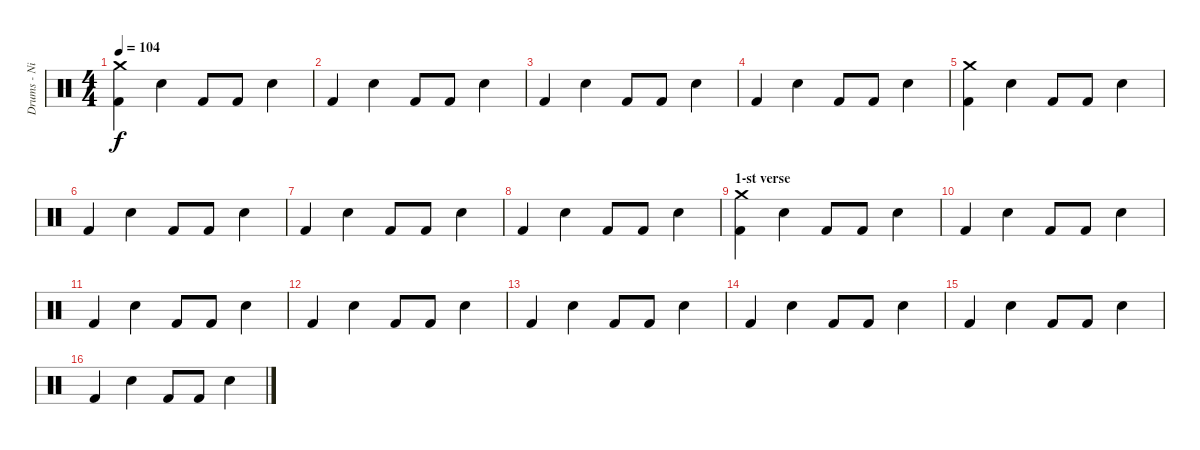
\track ("Drums - Nick Jago" "Drums - Ni") {instrument percussion}
\staff {score}
\articulation defaults
\ts (4 4)
\tempo 104
\clef neutral
\ks c
("Crash medium (hit)" "Kick (hit) 2").4{dy f} "Electric Snare (hit)".4 "Kick (hit) 2".8 "Kick (hit) 2".8 "Electric Snare (hit)".4 |
"Kick (hit) 2".4 "Electric Snare (hit)".4 "Kick (hit) 2".8 "Kick (hit) 2".8 "Electric Snare (hit)".4 |
"Kick (hit) 2".4 "Electric Snare (hit)".4 "Kick (hit) 2".8 "Kick (hit) 2".8 "Electric Snare (hit)".4 |
"Kick (hit) 2".4 "Electric Snare (hit)".4 "Kick (hit) 2".8 "Kick (hit) 2".8 "Electric Snare (hit)".4 |
("Crash medium (hit)" "Kick (hit) 2").4 "Electric Snare (hit)".4 "Kick (hit) 2".8 "Kick (hit) 2".8 "Electric Snare (hit)".4 |
"Kick (hit) 2".4 "Electric Snare (hit)".4 "Kick (hit) 2".8 "Kick (hit) 2".8 "Electric Snare (hit)".4 |
"Kick (hit) 2".4 "Electric Snare (hit)".4 "Kick (hit) 2".8 "Kick (hit) 2".8 "Electric Snare (hit)".4 |
"Kick (hit) 2".4 "Electric Snare (hit)".4 "Kick (hit) 2".8 "Kick (hit) 2".8 "Electric Snare (hit)".4 |
\section ("" "1-st verse")
("Crash medium (hit)" "Kick (hit) 2").4 "Electric Snare (hit)".4 "Kick (hit) 2".8 "Kick (hit) 2".8 "Electric Snare (hit)".4 |
"Kick (hit) 2".4 "Electric Snare (hit)".4 "Kick (hit) 2".8 "Kick (hit) 2".8 "Electric Snare (hit)".4 |
"Kick (hit) 2".4 "Electric Snare (hit)".4 "Kick (hit) 2".8 "Kick (hit) 2".8 "Electric Snare (hit)".4 |
"Kick (hit) 2".4 "Electric Snare (hit)".4 "Kick (hit) 2".8 "Kick (hit) 2".8 "Electric Snare (hit)".4 |
"Kick (hit) 2".4 "Electric Snare (hit)".4 "Kick (hit) 2".8 "Kick (hit) 2".8 "Electric Snare (hit)".4 |
"Kick (hit) 2".4 "Electric Snare (hit)".4 "Kick (hit) 2".8 "Kick (hit) 2".8 "Electric Snare (hit)".4 |
"Kick (hit) 2".4 "Electric Snare (hit)".4 "Kick (hit) 2".8 "Kick (hit) 2".8 "Electric Snare (hit)".4 |
"Kick (hit) 2".4 "Electric Snare (hit)".4 "Kick (hit) 2".8 "Kick (hit) 2".8 "Electric Snare (hit)".4
